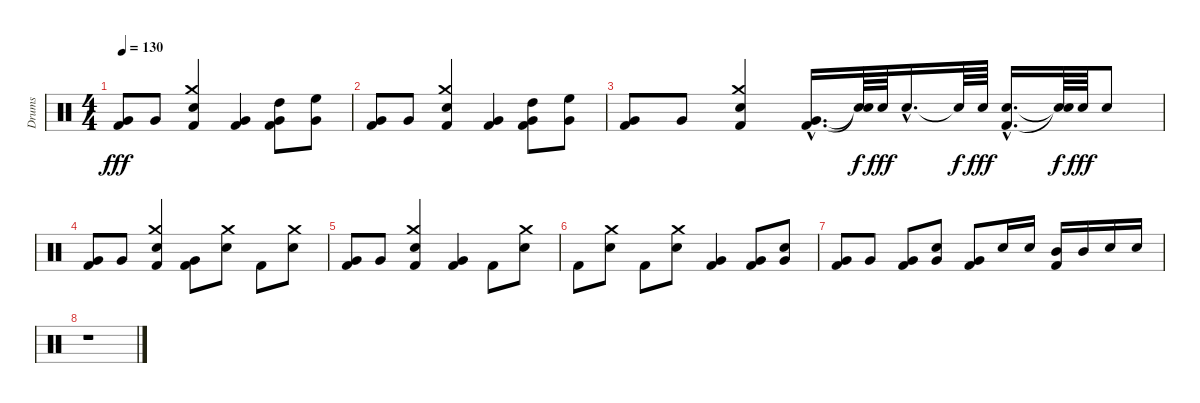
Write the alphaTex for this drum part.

\track ("Drums" "Drums") {instrument percussion}
\staff {score}
\articulation defaults
\ts (4 4)
\tempo 130
\clef neutral
\ks c
("Very Low Tom (hit)" "Kick (hit) 2").8{dy fff} "Very Low Tom (hit)".8 ("Crash medium (hit)" "Snare (hit) 2" "Kick (hit) 2").4 ("Very Low Tom (hit)" "Kick (hit) 2").4 ("High Tom (hit)" "Very Low Tom (hit)" "Kick (hit) 2").8 ("High Floor Tom (hit)" "Very Low Tom (hit)").8 |
("Very Low Tom (hit)" "Kick (hit) 2").8 "Very Low Tom (hit)".8 ("Crash medium (hit)" "Snare (hit) 2" "Kick (hit) 2").4 ("Very Low Tom (hit)" "Kick (hit) 2").4 ("High Tom (hit)" "Very Low Tom (hit)" "Kick (hit) 2").8 ("High Floor Tom (hit)" "Very Low Tom (hit)").8 |
("Very Low Tom (hit)" "Kick (hit) 2").8 "Very Low Tom (hit)".8 ("Crash medium (hit)" "Snare (hit) 2" "Kick (hit) 2").4 ("Very Low Tom (hit)"{hac} "Kick (hit) 2"{hac}).16{d} ("Snare (hit)"{t} "Snare (hit)"{t}).64{dy f} "Snare (hit) 2".64{dy fff} "Snare (hit) 2"{hac}.16{d} "Snare (hit)"{t}.64{dy f} "Snare (hit) 2".64{dy fff} ("Snare (hit) 2"{hac} "Kick (hit) 2"{hac}).16{d} ("Snare (hit)"{t} "Snare (hit)"{t}).64{dy f} "Snare (hit) 2".64{dy fff} "Snare (hit) 2".8 |
("Very Low Tom (hit)" "Kick (hit) 2").8 "Very Low Tom (hit)".8 ("Snare (hit) 2" "Crash medium (hit)" "Kick (hit) 2").4 ("Very Low Tom (hit)" "Kick (hit) 2").8 ("Crash medium (hit)" "Snare (hit) 2").8 "Kick (hit) 2".8 ("Crash medium (hit)" "Snare (hit) 2").8 |
("Very Low Tom (hit)" "Kick (hit) 2").8 "Very Low Tom (hit)".8 ("Crash medium (hit)" "Snare (hit) 2" "Kick (hit) 2").4 ("Very Low Tom (hit)" "Kick (hit) 2").4 "Kick (hit) 2".8 ("Crash medium (hit)" "Snare (hit) 2").8 |
"Kick (hit) 2".8 ("Snare (hit) 2" "Crash medium (hit)").8 "Kick (hit) 2".8 ("Snare (hit) 2" "Crash medium (hit)").8 ("Very Low Tom (hit)" "Kick (hit) 2").4 ("Very Low Tom (hit)" "Kick (hit) 2").8 ("Snare (hit) 2" "Very Low Tom (hit)").8 |
("Very Low Tom (hit)" "Kick (hit) 2").8 "Very Low Tom (hit)".8 ("Very Low Tom (hit)" "Kick (hit) 2").8 ("Snare (hit) 2" "Very Low Tom (hit)").8 ("Very Low Tom (hit)" "Kick (hit) 2").8 "Snare (hit) 2".16 "Snare (hit) 2".16 ("Mid Tom (hit)" "Kick (hit) 2").16 "Mid Tom (hit)".16 "Snare (hit) 2".16 "Snare (hit) 2".16 |
r.1
